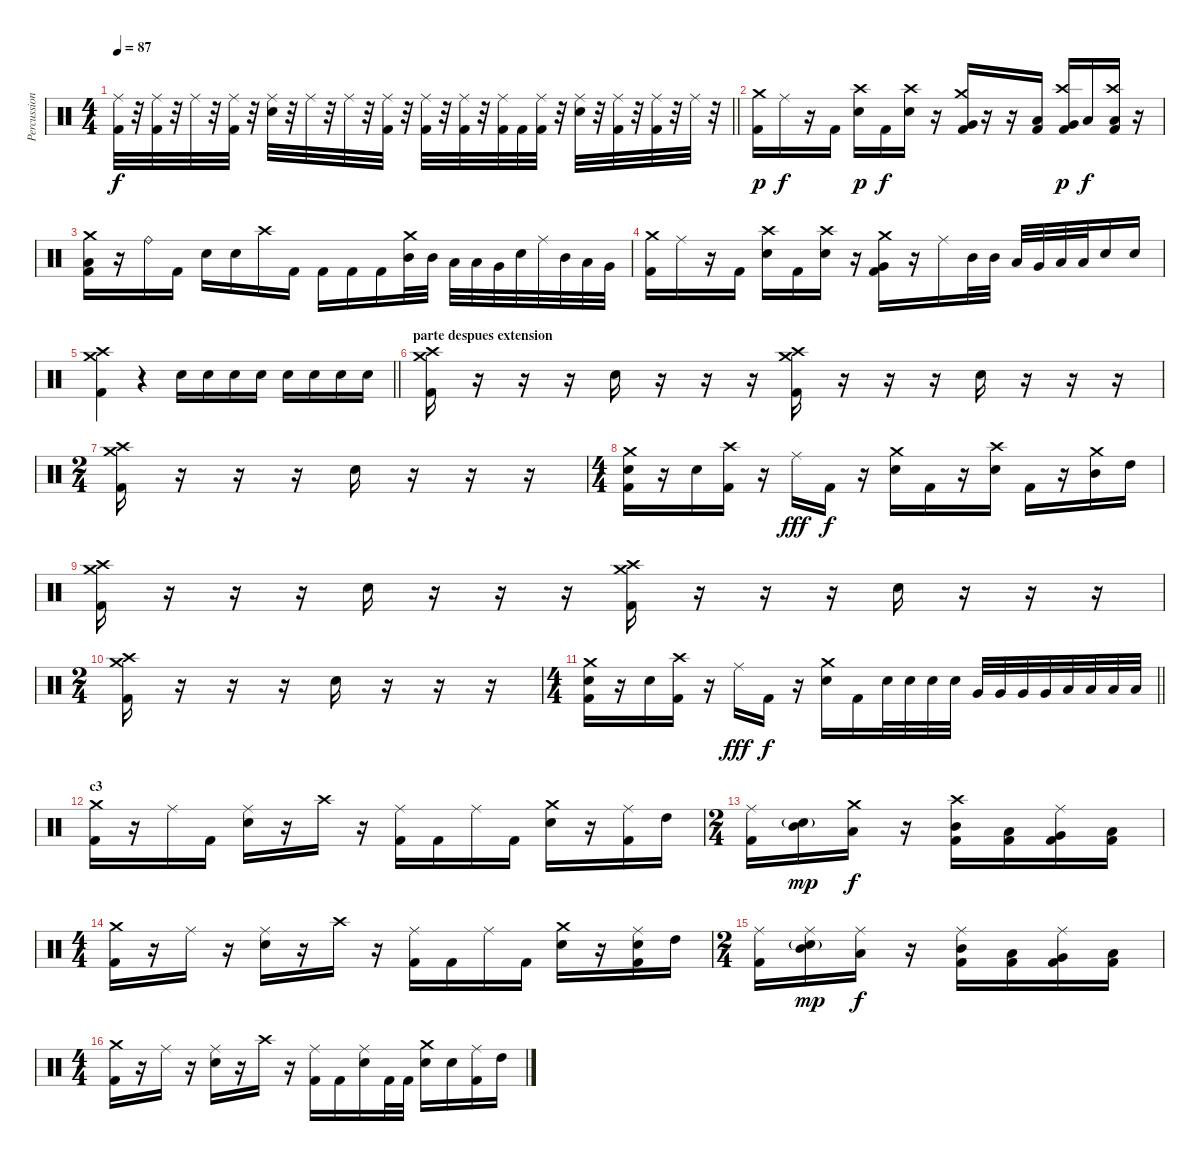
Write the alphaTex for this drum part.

\track ("Percussion" "Percussion") {instrument percussion}
\staff {score}
\articulation defaults
\ts (4 4)
\tempo 87
\clef neutral
\barLineRight lightlight
\ks c
("Ride (middle)" "Kick (hit) 2").32{dy f} r.32 ("Ride (middle)" "Kick (hit) 2").32 r.32 "Ride (middle)".32 r.32 ("Ride (middle)" "Kick (hit) 2").32 r.32 ("Ride (middle)" "Snare (hit) 2").32 r.32 "Ride (middle)".32 r.32 "Ride (middle)".32 r.32 ("Ride (middle)" "Kick (hit) 2").32 r.32 ("Ride (middle)" "Kick (hit) 2").32 r.32 ("Ride (middle)" "Kick (hit) 2").32 r.32 ("Ride (middle)" "Kick (hit) 2").32 "Kick (hit) 2".32 ("Ride (middle)" "Kick (hit) 2").32 r.32 ("Ride (middle)" "Snare (hit) 2").32 r.32 ("Ride (middle)" "Kick (hit) 2").32 r.32 ("Ride (middle)" "Kick (hit) 2").32 r.32 "Ride (middle)".32 r.32 |
("Crash medium (hit)" "Kick (hit) 2").16{dy p} "Ride (middle)".16{dy f} r.16 "Kick (hit) 2".16 ("Crash high (hit)" "Electric Snare (hit)").16{dy p} "Kick (hit) 2".16{dy f} ("Crash high (hit)" "Electric Snare (hit)").16 r.16 ("Crash medium (hit)" "Very Low Tom (hit)" "Kick (hit) 2").16 r.16 r.16 ("Low Floor Tom (hit)" "Kick (hit) 2").16 ("Crash high (hit)" "Very Low Tom (hit)" "Kick (hit) 2").16{dy p} "Low Floor Tom (hit)".16{dy f} ("Crash high (hit)" "Low Tom (hit)" "Kick (hit) 2").16 r.16 |
("Crash medium (hit)" "Low Floor Tom (hit)" "Kick (hit) 2").16 r.16 "Ride (bell)".16 "Kick (hit) 2".16 "Electric Snare (hit)".16 "Electric Snare (hit)".16 "Crash high (hit)".16 "Kick (hit) 2".16 "Kick (hit) 2".16 "Kick (hit) 2".16 "Kick (hit) 2".16 ("Crash medium (hit)" "Mid Tom (hit)").32 "Mid Tom (hit)".32 "Low Tom (hit)".32 "Low Floor Tom (hit)".32 "Very Low Tom (hit)".32 "Electric Snare (hit)".32 "Ride (middle)".32 "Mid Tom (hit)".32 "Low Tom (hit)".32 "Very Low Tom (hit)".32 |
("Crash medium (hit)" "Kick (hit) 2").16 "Ride (middle)".16 r.16 "Kick (hit) 2".16 ("Crash high (hit)" "Electric Snare (hit)").16 "Kick (hit) 2".16 ("Crash high (hit)" "Electric Snare (hit)").16 r.16 ("Crash medium (hit)" "Very Low Tom (hit)" "Kick (hit) 2").16 r.16 "Ride (middle)".16 "Mid Tom (hit)".32 "Mid Tom (hit)".32 "Low Tom (hit)".32 "Very Low Tom (hit)".32 "Low Floor Tom (hit)".32 "Low Floor Tom (hit)".32 "Electric Snare (hit)".16 "Electric Snare (hit)".16 |
\barLineRight lightlight
("Crash medium (hit)" "Crash high (hit)" "Kick (hit) 2").4 r.4{volume 0} "Electric Snare (hit)".16{volume 13} "Electric Snare (hit)".16 "Electric Snare (hit)".16 "Electric Snare (hit)".16 "Electric Snare (hit)".16 "Electric Snare (hit)".16 "Electric Snare (hit)".16 "Electric Snare (hit)".16 |
\section ("" "parte despues extension")
("Crash medium (hit)" "Crash high (hit)" "Kick (hit) 2").16 r.16 r.16 r.16 "Electric Snare (hit)".16 r.16 r.16 r.16 ("Crash medium (hit)" "Crash high (hit)" "Kick (hit) 2").16 r.16 r.16 r.16 "Electric Snare (hit)".16 r.16 r.16 r.16 |
\ts (2 4)
("Crash medium (hit)" "Crash high (hit)" "Kick (hit) 2").16 r.16 r.16 r.16 "Electric Snare (hit)".16 r.16 r.16 r.16 |
\ts (4 4)
("Crash medium (hit)" "Electric Snare (hit)" "Kick (hit) 2").16 r.16 "Electric Snare (hit)".16 ("Crash high (hit)" "Kick (hit) 2").16 r.16 "Ride (middle)".16{dy fff} "Kick (hit) 2".16{dy f} r.16 ("Crash medium (hit)" "Electric Snare (hit)").16 "Kick (hit) 2".16 r.16 ("Crash high (hit)" "Electric Snare (hit)").16 "Kick (hit) 2".16 r.16 ("Crash medium (hit)" "Mid Tom (hit)").16 "High Tom (hit)".16 |
("Crash medium (hit)" "Crash high (hit)" "Kick (hit) 2").16 r.16 r.16 r.16 "Electric Snare (hit)".16 r.16 r.16 r.16 ("Crash medium (hit)" "Crash high (hit)" "Kick (hit) 2").16 r.16 r.16 r.16 "Electric Snare (hit)".16 r.16 r.16 r.16 |
\ts (2 4)
("Crash medium (hit)" "Crash high (hit)" "Kick (hit) 2").16 r.16 r.16 r.16 "Electric Snare (hit)".16 r.16 r.16 r.16 |
\ts (4 4)
\barLineRight lightlight
("Crash medium (hit)" "Electric Snare (hit)" "Kick (hit) 2").16 r.16 "Electric Snare (hit)".16 ("Crash high (hit)" "Kick (hit) 2").16 r.16 "Ride (middle)".16{dy fff} "Kick (hit) 2".16{dy f} r.16 ("Crash medium (hit)" "Electric Snare (hit)").16 "Kick (hit) 2".16 "Electric Snare (hit)".32 "Electric Snare (hit)".32 "Electric Snare (hit)".32 "Electric Snare (hit)".32 "Very Low Tom (hit)".32 "Very Low Tom (hit)".32 "Very Low Tom (hit)".32 "Very Low Tom (hit)".32 "Low Floor Tom (hit)".32 "Low Floor Tom (hit)".32 "Low Floor Tom (hit)".32 "Low Floor Tom (hit)".32 |
\section ("" "c3")
("Crash medium (hit)" "Kick (hit) 2").16 r.16 "Ride (middle)".16 "Kick (hit) 2".16 ("Ride (middle)" "Electric Snare (hit)").16 r.16 "Crash high (hit)".16 r.16 ("Ride (middle)" "Kick (hit) 2").16 "Kick (hit) 2".16 "Ride (middle)".16 "Kick (hit) 2".16 ("Crash medium (hit)" "Electric Snare (hit)").16 r.16 ("Ride (middle)" "Kick (hit) 2").16 "High Tom (hit)".16 |
\ts (2 4)
("Ride (middle)" "Kick (hit) 2").16 ("Mid Tom (hit)" "Electric Snare (hit)"{g}).16{dy mp} ("Crash medium (hit)" "Low Tom (hit)").16{dy f} r.16 ("Crash high (hit)" "Mid Tom (hit)" "Kick (hit) 2").16 ("Low Tom (hit)" "Kick (hit) 2").16 ("Ride (middle)" "Very Low Tom (hit)" "Kick (hit) 2").16 ("Low Tom (hit)" "Kick (hit) 2").16 |
\ts (4 4)
("Crash medium (hit)" "Kick (hit) 2").16 r.16 "Ride (middle)".16 r.16 ("Ride (middle)" "Electric Snare (hit)").16 r.16 "Crash high (hit)".16 r.16 ("Ride (middle)" "Kick (hit) 2").16 "Kick (hit) 2".16 "Ride (middle)".16 "Kick (hit) 2".16 ("Crash medium (hit)" "Electric Snare (hit)").16 r.16 ("Ride (middle)" "Electric Snare (hit)" "Kick (hit) 2").16 "High Tom (hit)".16 |
\ts (2 4)
("Ride (middle)" "Kick (hit) 2").16 ("Ride (middle)" "Mid Tom (hit)" "Electric Snare (hit)"{g}).16{dy mp} ("Ride (middle)" "Low Tom (hit)").16{dy f} r.16 ("Ride (middle)" "Mid Tom (hit)" "Kick (hit) 2").16 ("Low Tom (hit)" "Kick (hit) 2").16 ("Ride (middle)" "Very Low Tom (hit)" "Kick (hit) 2").16 ("Low Tom (hit)" "Kick (hit) 2").16 |
\ts (4 4)
("Crash medium (hit)" "Kick (hit) 2").16 r.16 "Ride (middle)".16 r.16 ("Ride (middle)" "Electric Snare (hit)").16 r.16 "Crash high (hit)".16 r.16 ("Ride (middle)" "Kick (hit) 2").16 "Kick (hit) 2".16 ("Ride (middle)" "Electric Snare (hit)").16 "Kick (hit) 2".32 "Kick (hit) 2".32 ("Crash medium (hit)" "Electric Snare (hit)").16 "Electric Snare (hit)".16 ("Ride (middle)" "Kick (hit) 2").16 "High Tom (hit)".16
